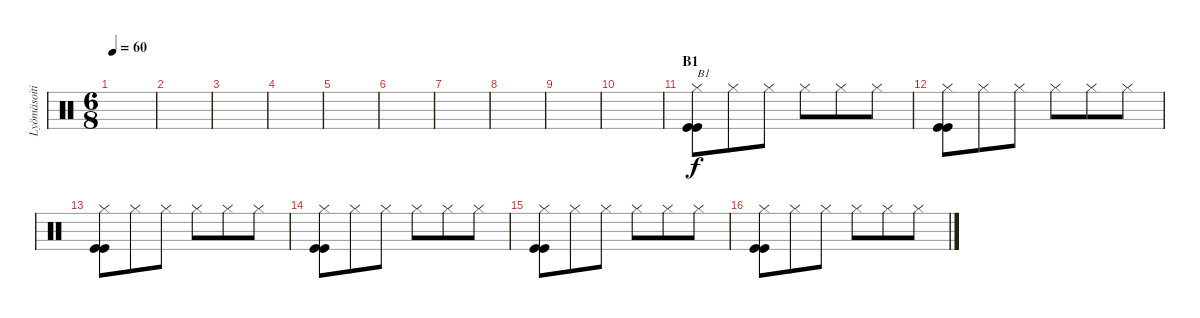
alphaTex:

\track ("Lyömäsoitin" "Lyömäsoiti") {instrument percussion}
\staff {score}
\articulation defaults
\ts (6 8)
\tempo 60
\clef neutral
\ks c
|
|
|
|
|
|
|
|
|
|
\section ("" "B1")
("Hi-Hat (closed)" "Kick (hit)" "Kick (hit)").8{txt "B1"} "Hi-Hat (closed)".8 "Hi-Hat (closed)".8 "Hi-Hat (closed)".8 "Hi-Hat (closed)".8 "Hi-Hat (closed)".8 |
("Hi-Hat (closed)" "Kick (hit)" "Kick (hit)").8 "Hi-Hat (closed)".8 "Hi-Hat (closed)".8 "Hi-Hat (closed)".8 "Hi-Hat (closed)".8 "Hi-Hat (closed)".8 |
("Hi-Hat (closed)" "Kick (hit)" "Kick (hit)").8 "Hi-Hat (closed)".8 "Hi-Hat (closed)".8 "Hi-Hat (closed)".8 "Hi-Hat (closed)".8 "Hi-Hat (closed)".8 |
("Hi-Hat (closed)" "Kick (hit)" "Kick (hit)").8 "Hi-Hat (closed)".8 "Hi-Hat (closed)".8 "Hi-Hat (closed)".8 "Hi-Hat (closed)".8 "Hi-Hat (closed)".8 |
("Hi-Hat (closed)" "Kick (hit)" "Kick (hit)").8 "Hi-Hat (closed)".8 "Hi-Hat (closed)".8 "Hi-Hat (closed)".8 "Hi-Hat (closed)".8 "Hi-Hat (closed)".8 |
("Hi-Hat (closed)" "Kick (hit)" "Kick (hit)").8 "Hi-Hat (closed)".8 "Hi-Hat (closed)".8 "Hi-Hat (closed)".8 "Hi-Hat (closed)".8 "Hi-Hat (closed)".8
